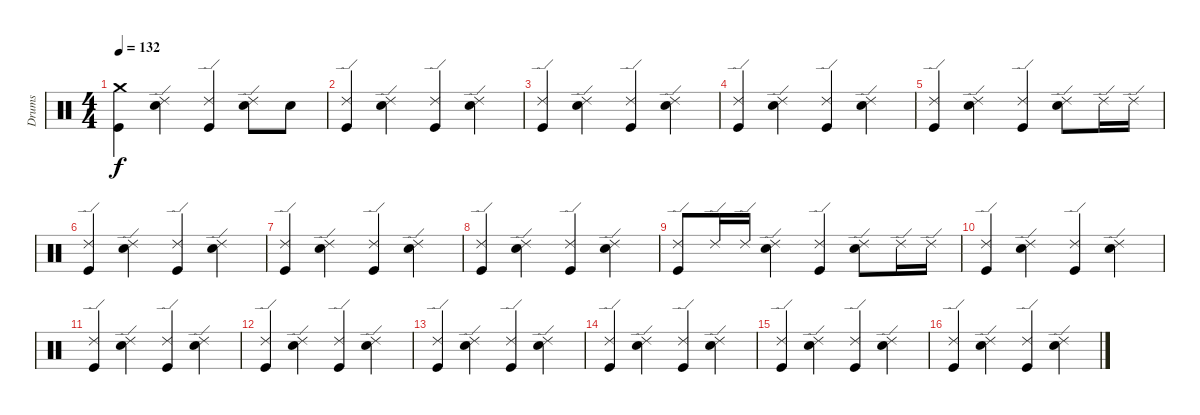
\track ("Drums" "Drums") {instrument percussion}
\staff {score}
\articulation defaults
\ts (4 4)
\tempo 132
\clef neutral
\ks c
("Crash medium (hit)" "Kick (hit)").4{dy f} ("Ride (edge) 2" "Snare (hit) 2").4 ("Ride (edge) 2" "Kick (hit)").4 ("Ride (edge) 2" "Snare (hit) 2").8 "Snare (hit) 2".8 |
("Ride (edge) 2" "Kick (hit)").4 ("Ride (edge) 2" "Snare (hit) 2").4 ("Ride (edge) 2" "Kick (hit)").4 ("Ride (edge) 2" "Snare (hit) 2").4 |
("Ride (edge) 2" "Kick (hit)").4 ("Ride (edge) 2" "Snare (hit) 2").4 ("Ride (edge) 2" "Kick (hit)").4 ("Ride (edge) 2" "Snare (hit) 2").4 |
("Ride (edge) 2" "Kick (hit)").4 ("Ride (edge) 2" "Snare (hit) 2").4 ("Ride (edge) 2" "Kick (hit)").4 ("Ride (edge) 2" "Snare (hit) 2").4 |
("Ride (edge) 2" "Kick (hit)").4 ("Ride (edge) 2" "Snare (hit) 2").4 ("Ride (edge) 2" "Kick (hit)").4 ("Ride (edge) 2" "Snare (hit) 2").8 "Ride (edge) 2".16 "Ride (edge) 2".16 |
("Ride (edge) 2" "Kick (hit)").4 ("Ride (edge) 2" "Snare (hit) 2").4 ("Ride (edge) 2" "Kick (hit)").4 ("Ride (edge) 2" "Snare (hit) 2").4 |
("Ride (edge) 2" "Kick (hit)").4 ("Ride (edge) 2" "Snare (hit) 2").4 ("Ride (edge) 2" "Kick (hit)").4 ("Ride (edge) 2" "Snare (hit) 2").4 |
("Ride (edge) 2" "Kick (hit)").4 ("Ride (edge) 2" "Snare (hit) 2").4 ("Ride (edge) 2" "Kick (hit)").4 ("Ride (edge) 2" "Snare (hit) 2").4 |
("Ride (edge) 2" "Kick (hit)").8 "Ride (edge) 2".16 "Ride (edge) 2".16 ("Ride (edge) 2" "Snare (hit) 2").4 ("Ride (edge) 2" "Kick (hit)").4 ("Ride (edge) 2" "Snare (hit) 2").8 "Ride (edge) 2".16 "Ride (edge) 2".16 |
("Ride (edge) 2" "Kick (hit)").4 ("Ride (edge) 2" "Snare (hit) 2").4 ("Ride (edge) 2" "Kick (hit)").4 ("Ride (edge) 2" "Snare (hit) 2").4 |
("Ride (edge) 2" "Kick (hit)").4 ("Ride (edge) 2" "Snare (hit) 2").4 ("Ride (edge) 2" "Kick (hit)").4 ("Ride (edge) 2" "Snare (hit) 2").4 |
("Ride (edge) 2" "Kick (hit)").4 ("Ride (edge) 2" "Snare (hit) 2").4 ("Ride (edge) 2" "Kick (hit)").4 ("Ride (edge) 2" "Snare (hit) 2").4 |
("Ride (edge) 2" "Kick (hit)").4 ("Ride (edge) 2" "Snare (hit) 2").4 ("Ride (edge) 2" "Kick (hit)").4 ("Ride (edge) 2" "Snare (hit) 2").4 |
("Ride (edge) 2" "Kick (hit)").4 ("Ride (edge) 2" "Snare (hit) 2").4 ("Ride (edge) 2" "Kick (hit)").4 ("Ride (edge) 2" "Snare (hit) 2").4 |
("Ride (edge) 2" "Kick (hit)").4 ("Ride (edge) 2" "Snare (hit) 2").4 ("Ride (edge) 2" "Kick (hit)").4 ("Ride (edge) 2" "Snare (hit) 2").4 |
("Ride (edge) 2" "Kick (hit)").4 ("Ride (edge) 2" "Snare (hit) 2").4 ("Ride (edge) 2" "Kick (hit)").4 ("Ride (edge) 2" "Snare (hit) 2").4
